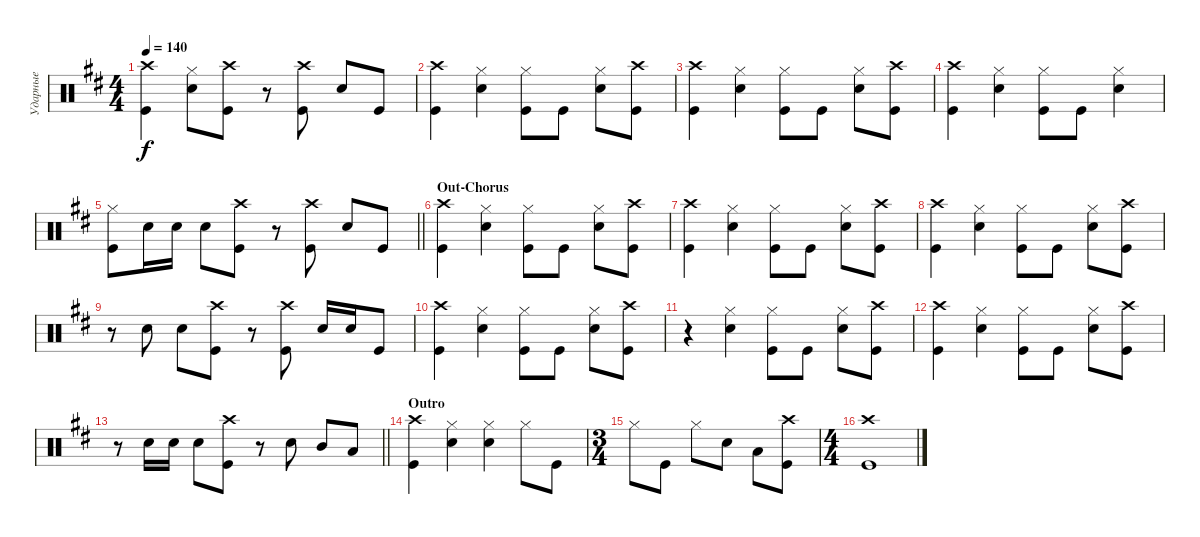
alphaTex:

\track ("Ударные" "Ударные") {instrument percussion}
\staff {score}
\articulation defaults
\ts (4 4)
\tempo 140
\clef neutral
\ks bminor
("Kick (hit)" "Crash high (hit)").4{dy f} ("Snare (hit) 2" "Hi-Hat (closed)").8 ("Kick (hit)" "Crash high (hit)").8 r.8 ("Kick (hit)" "Crash high (hit)").8 "Snare (hit) 2".8 "Kick (hit)".8 |
("Kick (hit)" "Crash high (hit)").4 ("Snare (hit) 2" "Hi-Hat (closed)").4 ("Kick (hit)" "Hi-Hat (closed)").8 "Kick (hit)".8 ("Snare (hit) 2" "Hi-Hat (closed)").8 ("Kick (hit)" "Crash high (hit)").8 |
("Kick (hit)" "Crash high (hit)").4 ("Snare (hit) 2" "Hi-Hat (closed)").4 ("Kick (hit)" "Hi-Hat (closed)").8 "Kick (hit)".8 ("Snare (hit) 2" "Hi-Hat (closed)").8 ("Kick (hit)" "Crash high (hit)").8 |
("Kick (hit)" "Crash high (hit)").4 ("Snare (hit) 2" "Hi-Hat (closed)").4 ("Kick (hit)" "Hi-Hat (closed)").8 "Kick (hit)".8 ("Snare (hit) 2" "Hi-Hat (closed)").4 |
\barLineRight lightlight
("Kick (hit)" "Hi-Hat (closed)").8 "Snare (hit) 2".16 "Snare (hit) 2".16 "Snare (hit) 2".8 ("Kick (hit)" "Crash high (hit)").8 r.8 ("Kick (hit)" "Crash high (hit)").8 "Snare (hit) 2".8 "Kick (hit)".8 |
\section ("" "Out-Chorus")
("Kick (hit)" "Crash high (hit)").4 ("Snare (hit) 2" "Hi-Hat (closed)").4 ("Kick (hit)" "Hi-Hat (closed)").8 "Kick (hit)".8 ("Snare (hit) 2" "Hi-Hat (closed)").8 ("Kick (hit)" "Crash high (hit)").8 |
("Kick (hit)" "Crash high (hit)").4 ("Snare (hit) 2" "Hi-Hat (closed)").4 ("Kick (hit)" "Hi-Hat (closed)").8 "Kick (hit)".8 ("Snare (hit) 2" "Hi-Hat (closed)").8 ("Kick (hit)" "Crash high (hit)").8 |
("Kick (hit)" "Crash high (hit)").4 ("Snare (hit) 2" "Hi-Hat (closed)").4 ("Kick (hit)" "Hi-Hat (closed)").8 "Kick (hit)".8 ("Snare (hit) 2" "Hi-Hat (closed)").8 ("Kick (hit)" "Crash high (hit)").8 |
r.8 "Snare (hit) 2".8 "Snare (hit) 2".8 ("Kick (hit)" "Crash high (hit)").8 r.8 ("Kick (hit)" "Crash high (hit)").8 "Snare (hit) 2".16 "Snare (hit) 2".16 "Kick (hit)".8 |
("Kick (hit)" "Crash high (hit)").4 ("Snare (hit) 2" "Hi-Hat (closed)").4 ("Kick (hit)" "Hi-Hat (closed)").8 "Kick (hit)".8 ("Snare (hit) 2" "Hi-Hat (closed)").8 ("Kick (hit)" "Crash high (hit)").8 |
r.4 ("Snare (hit) 2" "Hi-Hat (closed)").4 ("Kick (hit)" "Hi-Hat (closed)").8 "Kick (hit)".8 ("Snare (hit) 2" "Hi-Hat (closed)").8 ("Kick (hit)" "Crash high (hit)").8 |
("Kick (hit)" "Crash high (hit)").4 ("Snare (hit) 2" "Hi-Hat (closed)").4 ("Kick (hit)" "Hi-Hat (closed)").8 "Kick (hit)".8 ("Snare (hit) 2" "Hi-Hat (closed)").8 ("Kick (hit)" "Crash high (hit)").8 |
\barLineRight lightlight
r.8 "Snare (hit) 2".16 "Snare (hit) 2".16 "Snare (hit) 2".8 ("Kick (hit)" "Crash high (hit)").8 r.8 "Snare (hit) 2".8 "Mid Tom (hit)".8 "Low Tom (hit)".8 |
\section ("" "Outro")
("Kick (hit)" "Crash high (hit)").4 ("Snare (hit) 2" "Hi-Hat (closed)").4 ("Snare (hit) 2" "Hi-Hat (closed)").4 "Hi-Hat (closed)".8 "Kick (hit)".8 |
\ts (3 4)
"Hi-Hat (closed)".8 "Kick (hit)".8 "Hi-Hat (closed)".8 "Snare (hit) 2".8 "Low Tom (hit)".8 ("Kick (hit)" "Crash high (hit)").8 |
\ts (4 4)
("Kick (hit)" "Crash high (hit)").1
